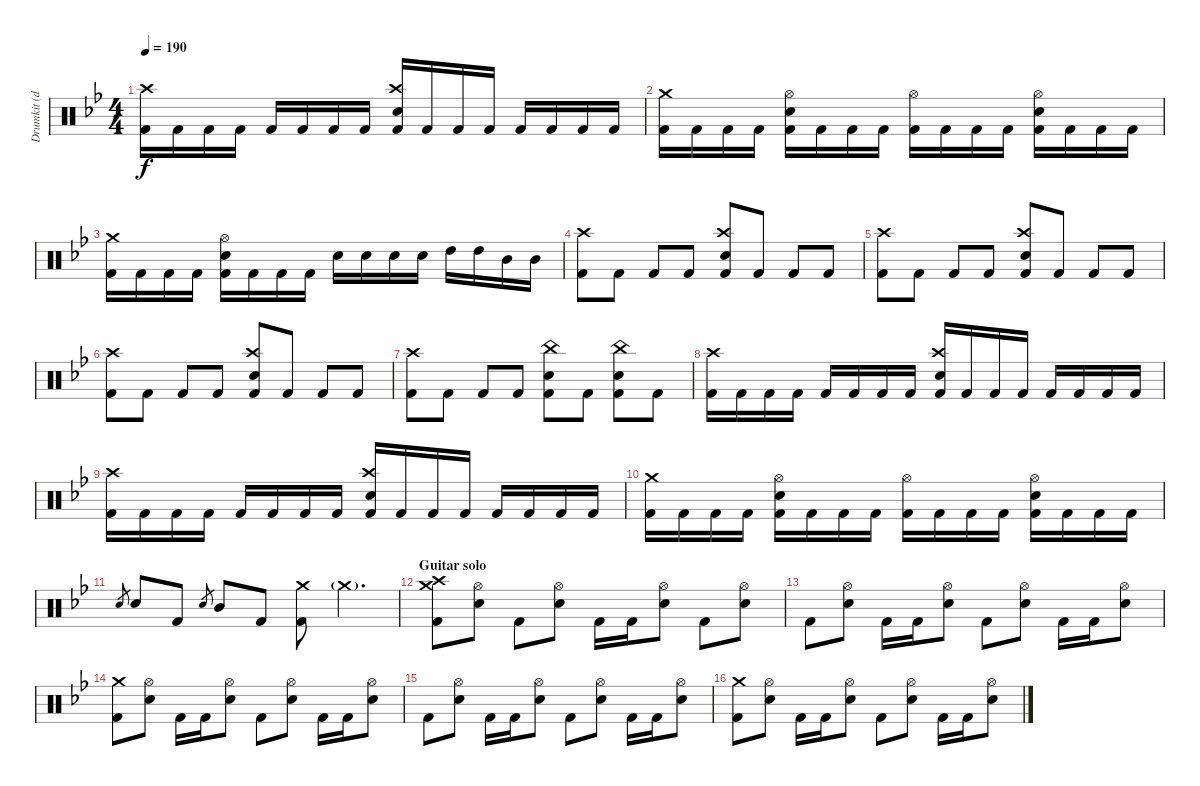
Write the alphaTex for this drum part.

\track ("Drumkit (don't unmute)" "Drumkit (d") {instrument percussion}
\staff {score}
\articulation defaults
\ts (4 4)
\tempo 190
\clef neutral
\ks bb
("Kick (hit) 2" "Crash high (hit)").16{dy f} "Kick (hit) 2".16 "Kick (hit) 2".16 "Kick (hit) 2".16 "Kick (hit) 2".16 "Kick (hit) 2".16 "Kick (hit) 2".16 "Kick (hit) 2".16 ("Kick (hit) 2" "Crash high (hit)" "Snare (hit) 2").16 "Kick (hit) 2".16 "Kick (hit) 2".16 "Kick (hit) 2".16 "Kick (hit) 2".16 "Kick (hit) 2".16 "Kick (hit) 2".16 "Kick (hit) 2".16 |
("Kick (hit) 2" "Crash medium (hit)").16 "Kick (hit) 2".16 "Kick (hit) 2".16 "Kick (hit) 2".16 ("Kick (hit) 2" "Snare (hit) 2" "Hi-Hat (open)").16 "Kick (hit) 2".16 "Kick (hit) 2".16 "Kick (hit) 2".16 ("Kick (hit) 2" "Hi-Hat (open)").16 "Kick (hit) 2".16 "Kick (hit) 2".16 "Kick (hit) 2".16 ("Kick (hit) 2" "Snare (hit) 2" "Hi-Hat (open)").16 "Kick (hit) 2".16 "Kick (hit) 2".16 "Kick (hit) 2".16 |
("Kick (hit) 2" "Crash medium (hit)").16 "Kick (hit) 2".16 "Kick (hit) 2".16 "Kick (hit) 2".16 ("Kick (hit) 2" "Snare (hit) 2" "Hi-Hat (open)").16 "Kick (hit) 2".16 "Kick (hit) 2".16 "Kick (hit) 2".16 "Snare (hit) 2".16 "Snare (hit) 2".16 "Snare (hit) 2".16 "Snare (hit) 2".16 "High Tom (hit)".16 "High Tom (hit)".16 "Mid Tom (hit)".16 "Mid Tom (hit)".16 |
("Kick (hit) 2" "Crash high (hit)").8 "Kick (hit) 2".8 "Kick (hit) 2".8 "Kick (hit) 2".8 ("Kick (hit) 2" "Crash high (hit)" "Snare (hit) 2").8 "Kick (hit) 2".8 "Kick (hit) 2".8 "Kick (hit) 2".8 |
("Kick (hit) 2" "Crash high (hit)").8 "Kick (hit) 2".8 "Kick (hit) 2".8 "Kick (hit) 2".8 ("Kick (hit) 2" "Crash high (hit)" "Snare (hit) 2").8 "Kick (hit) 2".8 "Kick (hit) 2".8 "Kick (hit) 2".8 |
("Kick (hit) 2" "Crash high (hit)").8 "Kick (hit) 2".8 "Kick (hit) 2".8 "Kick (hit) 2".8 ("Kick (hit) 2" "Crash high (hit)" "Snare (hit) 2").8 "Kick (hit) 2".8 "Kick (hit) 2".8 "Kick (hit) 2".8 |
("Kick (hit) 2" "Crash high (hit)").8 "Kick (hit) 2".8 "Kick (hit) 2".8 "Kick (hit) 2".8 ("Kick (hit) 2" "Snare (hit) 2" "China (hit)").8 "Kick (hit) 2".8 ("Kick (hit) 2" "Snare (hit) 2" "China (hit)").8 "Kick (hit) 2".8 |
("Kick (hit) 2" "Crash high (hit)").16 "Kick (hit) 2".16 "Kick (hit) 2".16 "Kick (hit) 2".16 "Kick (hit) 2".16 "Kick (hit) 2".16 "Kick (hit) 2".16 "Kick (hit) 2".16 ("Kick (hit) 2" "Crash high (hit)" "Snare (hit) 2").16 "Kick (hit) 2".16 "Kick (hit) 2".16 "Kick (hit) 2".16 "Kick (hit) 2".16 "Kick (hit) 2".16 "Kick (hit) 2".16 "Kick (hit) 2".16 |
("Kick (hit) 2" "Crash high (hit)").16 "Kick (hit) 2".16 "Kick (hit) 2".16 "Kick (hit) 2".16 "Kick (hit) 2".16 "Kick (hit) 2".16 "Kick (hit) 2".16 "Kick (hit) 2".16 ("Kick (hit) 2" "Crash high (hit)" "Snare (hit) 2").16 "Kick (hit) 2".16 "Kick (hit) 2".16 "Kick (hit) 2".16 "Kick (hit) 2".16 "Kick (hit) 2".16 "Kick (hit) 2".16 "Kick (hit) 2".16 |
("Kick (hit) 2" "Crash medium (hit)").16 "Kick (hit) 2".16 "Kick (hit) 2".16 "Kick (hit) 2".16 ("Kick (hit) 2" "Snare (hit) 2" "Hi-Hat (open)").16 "Kick (hit) 2".16 "Kick (hit) 2".16 "Kick (hit) 2".16 ("Kick (hit) 2" "Hi-Hat (open)").16 "Kick (hit) 2".16 "Kick (hit) 2".16 "Kick (hit) 2".16 ("Kick (hit) 2" "Snare (hit) 2" "Hi-Hat (open)").16 "Kick (hit) 2".16 "Kick (hit) 2".16 "Kick (hit) 2".16 |
"Snare (hit)".8{gr} "Snare (hit) 2".8 "Kick (hit) 2".8 "Snare (hit)".8{gr} "Mid Tom (hit)".8 "Kick (hit) 2".8 ("Kick (hit) 2" "Crash medium (hit)").8 "Crash medium (hit)"{g}.4{d} |
\section ("" "Guitar solo")
("Kick (hit) 2" "Crash high (hit)" "Crash medium (hit)").8 ("Snare (hit) 2" "Hi-Hat (open)").8 "Kick (hit) 2".8 ("Snare (hit) 2" "Hi-Hat (open)").8 "Kick (hit) 2".16 "Kick (hit) 2".16 ("Snare (hit) 2" "Hi-Hat (open)").8 "Kick (hit) 2".8 ("Snare (hit) 2" "Hi-Hat (open)").8 |
"Kick (hit) 2".8 ("Snare (hit) 2" "Hi-Hat (open)").8 "Kick (hit) 2".16 "Kick (hit) 2".16 ("Snare (hit) 2" "Hi-Hat (open)").8 "Kick (hit) 2".8 ("Snare (hit) 2" "Hi-Hat (open)").8 "Kick (hit) 2".16 "Kick (hit) 2".16 ("Snare (hit) 2" "Hi-Hat (open)").8 |
("Kick (hit) 2" "Crash medium (hit)").8 ("Snare (hit) 2" "Hi-Hat (open)").8 "Kick (hit) 2".16 "Kick (hit) 2".16 ("Snare (hit) 2" "Hi-Hat (open)").8 "Kick (hit) 2".8 ("Snare (hit) 2" "Hi-Hat (open)").8 "Kick (hit) 2".16 "Kick (hit) 2".16 ("Snare (hit) 2" "Hi-Hat (open)").8 |
"Kick (hit) 2".8 ("Snare (hit) 2" "Hi-Hat (open)").8 "Kick (hit) 2".16 "Kick (hit) 2".16 ("Snare (hit) 2" "Hi-Hat (open)").8 "Kick (hit) 2".8 ("Snare (hit) 2" "Hi-Hat (open)").8 "Kick (hit) 2".16 "Kick (hit) 2".16 ("Snare (hit) 2" "Hi-Hat (open)").8 |
("Kick (hit) 2" "Crash medium (hit)").8 ("Snare (hit) 2" "Hi-Hat (open)").8 "Kick (hit) 2".16 "Kick (hit) 2".16 ("Snare (hit) 2" "Hi-Hat (open)").8 "Kick (hit) 2".8 ("Snare (hit) 2" "Hi-Hat (open)").8 "Kick (hit) 2".16 "Kick (hit) 2".16 ("Snare (hit) 2" "Hi-Hat (open)").8
